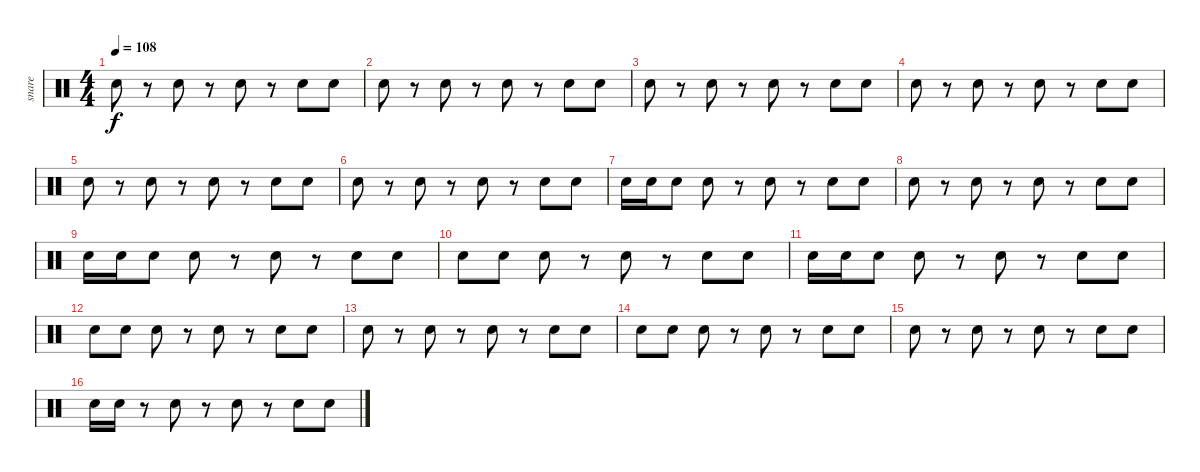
\track ("snare               " "snare     ") {instrument percussion}
\staff {score}
\articulation defaults
\ts (4 4)
\tempo 108
\clef neutral
\ks c "Snare (hit) 2".8{dy f}
r.8 "Snare (hit) 2".8 r.8 "Snare (hit) 2".8 r.8 "Snare (hit) 2".8 "Snare (hit) 2".8 |
"Snare (hit) 2".8 r.8 "Snare (hit) 2".8 r.8 "Snare (hit) 2".8 r.8 "Snare (hit) 2".8 "Snare (hit) 2".8 |
"Snare (hit) 2".8 r.8 "Snare (hit) 2".8 r.8 "Snare (hit) 2".8 r.8 "Snare (hit) 2".8 "Snare (hit) 2".8 |
"Snare (hit) 2".8 r.8 "Snare (hit) 2".8 r.8 "Snare (hit) 2".8 r.8 "Snare (hit) 2".8 "Snare (hit) 2".8 |
"Snare (hit) 2".8 r.8 "Snare (hit) 2".8 r.8 "Snare (hit) 2".8 r.8 "Snare (hit) 2".8 "Snare (hit) 2".8 |
"Snare (hit) 2".8 r.8 "Snare (hit) 2".8 r.8 "Snare (hit) 2".8 r.8 "Snare (hit) 2".8 "Snare (hit) 2".8 |
"Snare (hit) 2".16 "Snare (hit) 2".16 "Snare (hit) 2".8 "Snare (hit) 2".8 r.8 "Snare (hit) 2".8 r.8 "Snare (hit) 2".8 "Snare (hit) 2".8 |
"Snare (hit) 2".8 r.8 "Snare (hit) 2".8 r.8 "Snare (hit) 2".8 r.8 "Snare (hit) 2".8 "Snare (hit) 2".8 |
"Snare (hit) 2".16 "Snare (hit) 2".16 "Snare (hit) 2".8 "Snare (hit) 2".8 r.8 "Snare (hit) 2".8 r.8 "Snare (hit) 2".8 "Snare (hit) 2".8 |
"Snare (hit) 2".8 "Snare (hit) 2".8 "Snare (hit) 2".8 r.8 "Snare (hit) 2".8 r.8 "Snare (hit) 2".8 "Snare (hit) 2".8 |
"Snare (hit) 2".16 "Snare (hit) 2".16 "Snare (hit) 2".8 "Snare (hit) 2".8 r.8 "Snare (hit) 2".8 r.8 "Snare (hit) 2".8 "Snare (hit) 2".8 |
"Snare (hit) 2".8 "Snare (hit) 2".8 "Snare (hit) 2".8 r.8 "Snare (hit) 2".8 r.8 "Snare (hit) 2".8 "Snare (hit) 2".8 |
"Snare (hit) 2".8 r.8 "Snare (hit) 2".8 r.8 "Snare (hit) 2".8 r.8 "Snare (hit) 2".8 "Snare (hit) 2".8 |
"Snare (hit) 2".8 "Snare (hit) 2".8 "Snare (hit) 2".8 r.8 "Snare (hit) 2".8 r.8 "Snare (hit) 2".8 "Snare (hit) 2".8 |
"Snare (hit) 2".8 r.8 "Snare (hit) 2".8 r.8 "Snare (hit) 2".8 r.8 "Snare (hit) 2".8 "Snare (hit) 2".8 |
"Snare (hit) 2".16 "Snare (hit) 2".16 r.8 "Snare (hit) 2".8 r.8 "Snare (hit) 2".8 r.8 "Snare (hit) 2".8 "Snare (hit) 2".8
